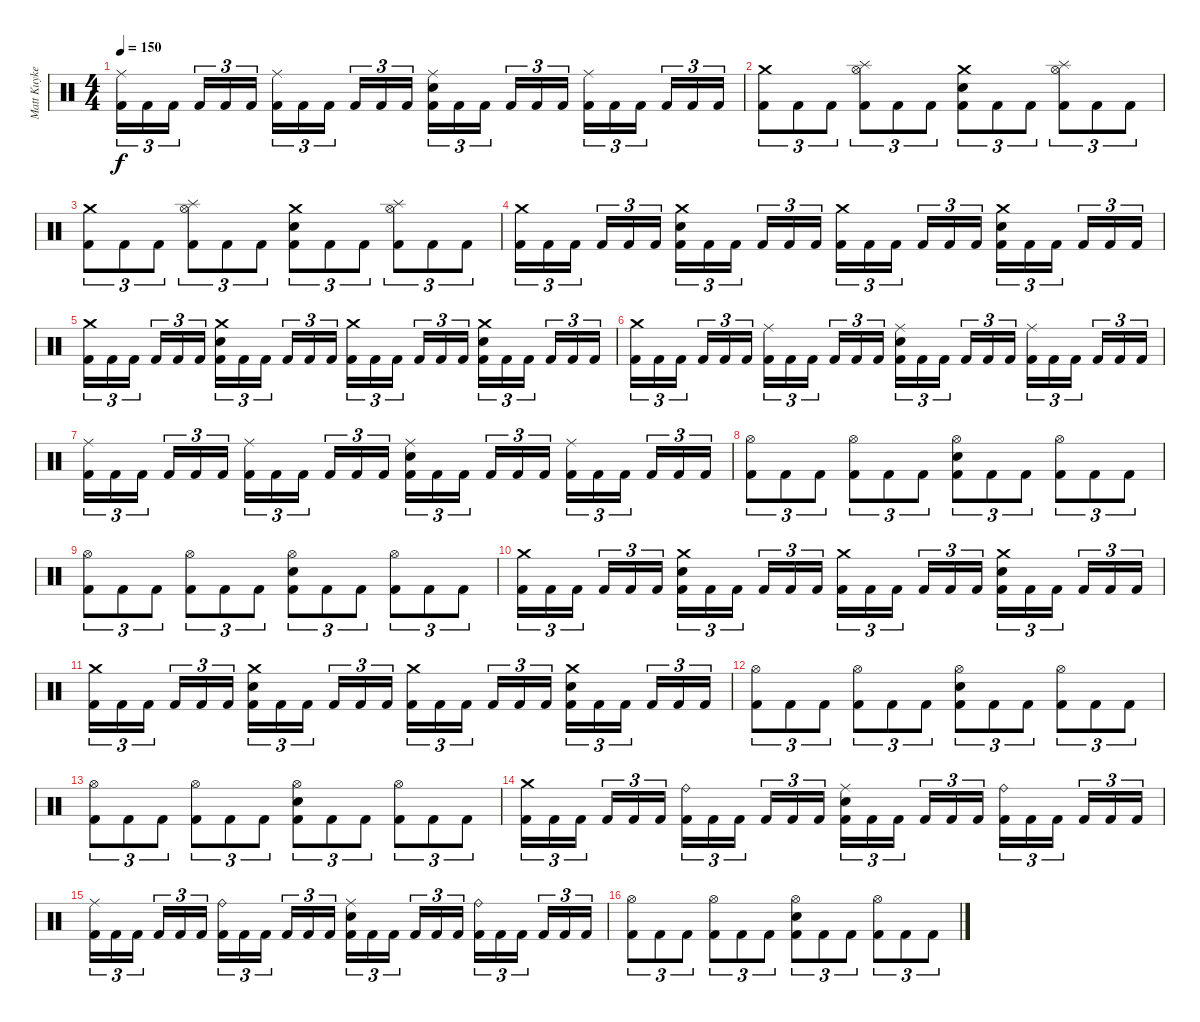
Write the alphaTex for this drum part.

\track ("Matt Kuykendall" "Matt Kuyke") {instrument percussion}
\staff {score}
\articulation defaults
\ts (4 4)
\tempo 150
\clef neutral
\ks c
("Ride (middle)" "Kick (hit) 2").16{tu (3 2) dy f} "Kick (hit) 2".16{tu (3 2)} "Kick (hit) 2".16{tu (3 2) beam splitsecondary} "Kick (hit) 2".16{tu (3 2)} "Kick (hit) 2".16{tu (3 2)} "Kick (hit) 2".16{tu (3 2)} ("Ride (middle)" "Kick (hit) 2").16{tu (3 2)} "Kick (hit) 2".16{tu (3 2)} "Kick (hit) 2".16{tu (3 2) beam splitsecondary} "Kick (hit) 2".16{tu (3 2)} "Kick (hit) 2".16{tu (3 2)} "Kick (hit) 2".16{tu (3 2)} ("Ride (middle)" "Electric Snare (hit)" "Kick (hit) 2").16{tu (3 2)} "Kick (hit) 2".16{tu (3 2)} "Kick (hit) 2".16{tu (3 2) beam splitsecondary} "Kick (hit) 2".16{tu (3 2)} "Kick (hit) 2".16{tu (3 2)} "Kick (hit) 2".16{tu (3 2)} ("Ride (middle)" "Kick (hit) 2").16{tu (3 2)} "Kick (hit) 2".16{tu (3 2)} "Kick (hit) 2".16{tu (3 2) beam splitsecondary} "Kick (hit) 2".16{tu (3 2)} "Kick (hit) 2".16{tu (3 2)} "Kick (hit) 2".16{tu (3 2)} |
("Crash medium (hit)" "Kick (hit) 2").8{tu (3 2)} "Kick (hit) 2".8{tu (3 2)} "Kick (hit) 2".8{tu (3 2)} ("Hi-Hat (open)" "Splash (hit)" "Kick (hit) 2").8{tu (3 2)} "Kick (hit) 2".8{tu (3 2)} "Kick (hit) 2".8{tu (3 2)} ("Crash medium (hit)" "Electric Snare (hit)" "Kick (hit) 2").8{tu (3 2)} "Kick (hit) 2".8{tu (3 2)} "Kick (hit) 2".8{tu (3 2)} ("Hi-Hat (open)" "Splash (hit)" "Kick (hit) 2").8{tu (3 2)} "Kick (hit) 2".8{tu (3 2)} "Kick (hit) 2".8{tu (3 2)} |
("Crash medium (hit)" "Kick (hit) 2").8{tu (3 2)} "Kick (hit) 2".8{tu (3 2)} "Kick (hit) 2".8{tu (3 2)} ("Hi-Hat (open)" "Splash (hit)" "Kick (hit) 2").8{tu (3 2)} "Kick (hit) 2".8{tu (3 2)} "Kick (hit) 2".8{tu (3 2)} ("Crash medium (hit)" "Electric Snare (hit)" "Kick (hit) 2").8{tu (3 2)} "Kick (hit) 2".8{tu (3 2)} "Kick (hit) 2".8{tu (3 2)} ("Hi-Hat (open)" "Splash (hit)" "Kick (hit) 2").8{tu (3 2)} "Kick (hit) 2".8{tu (3 2)} "Kick (hit) 2".8{tu (3 2)} |
("Crash medium (hit)" "Kick (hit) 2").16{tu (3 2)} "Kick (hit) 2".16{tu (3 2)} "Kick (hit) 2".16{tu (3 2) beam splitsecondary} "Kick (hit) 2".16{tu (3 2)} "Kick (hit) 2".16{tu (3 2)} "Kick (hit) 2".16{tu (3 2)} ("Crash medium (hit)" "Electric Snare (hit)" "Kick (hit) 2").16{tu (3 2)} "Kick (hit) 2".16{tu (3 2)} "Kick (hit) 2".16{tu (3 2) beam splitsecondary} "Kick (hit) 2".16{tu (3 2)} "Kick (hit) 2".16{tu (3 2)} "Kick (hit) 2".16{tu (3 2)} ("Crash medium (hit)" "Kick (hit) 2").16{tu (3 2)} "Kick (hit) 2".16{tu (3 2)} "Kick (hit) 2".16{tu (3 2) beam splitsecondary} "Kick (hit) 2".16{tu (3 2)} "Kick (hit) 2".16{tu (3 2)} "Kick (hit) 2".16{tu (3 2)} ("Crash medium (hit)" "Electric Snare (hit)" "Kick (hit) 2").16{tu (3 2)} "Kick (hit) 2".16{tu (3 2)} "Kick (hit) 2".16{tu (3 2) beam splitsecondary} "Kick (hit) 2".16{tu (3 2)} "Kick (hit) 2".16{tu (3 2)} "Kick (hit) 2".16{tu (3 2)} |
("Crash medium (hit)" "Kick (hit) 2").16{tu (3 2)} "Kick (hit) 2".16{tu (3 2)} "Kick (hit) 2".16{tu (3 2) beam splitsecondary} "Kick (hit) 2".16{tu (3 2)} "Kick (hit) 2".16{tu (3 2)} "Kick (hit) 2".16{tu (3 2)} ("Crash medium (hit)" "Electric Snare (hit)" "Kick (hit) 2").16{tu (3 2)} "Kick (hit) 2".16{tu (3 2)} "Kick (hit) 2".16{tu (3 2) beam splitsecondary} "Kick (hit) 2".16{tu (3 2)} "Kick (hit) 2".16{tu (3 2)} "Kick (hit) 2".16{tu (3 2)} ("Crash medium (hit)" "Kick (hit) 2").16{tu (3 2)} "Kick (hit) 2".16{tu (3 2)} "Kick (hit) 2".16{tu (3 2) beam splitsecondary} "Kick (hit) 2".16{tu (3 2)} "Kick (hit) 2".16{tu (3 2)} "Kick (hit) 2".16{tu (3 2)} ("Crash medium (hit)" "Electric Snare (hit)" "Kick (hit) 2").16{tu (3 2)} "Kick (hit) 2".16{tu (3 2)} "Kick (hit) 2".16{tu (3 2) beam splitsecondary} "Kick (hit) 2".16{tu (3 2)} "Kick (hit) 2".16{tu (3 2)} "Kick (hit) 2".16{tu (3 2)} |
("Crash medium (hit)" "Kick (hit) 2").16{tu (3 2)} "Kick (hit) 2".16{tu (3 2)} "Kick (hit) 2".16{tu (3 2) beam splitsecondary} "Kick (hit) 2".16{tu (3 2)} "Kick (hit) 2".16{tu (3 2)} "Kick (hit) 2".16{tu (3 2)} ("Ride (middle)" "Kick (hit) 2").16{tu (3 2)} "Kick (hit) 2".16{tu (3 2)} "Kick (hit) 2".16{tu (3 2) beam splitsecondary} "Kick (hit) 2".16{tu (3 2)} "Kick (hit) 2".16{tu (3 2)} "Kick (hit) 2".16{tu (3 2)} ("Ride (middle)" "Electric Snare (hit)" "Kick (hit) 2").16{tu (3 2)} "Kick (hit) 2".16{tu (3 2)} "Kick (hit) 2".16{tu (3 2) beam splitsecondary} "Kick (hit) 2".16{tu (3 2)} "Kick (hit) 2".16{tu (3 2)} "Kick (hit) 2".16{tu (3 2)} ("Ride (middle)" "Kick (hit) 2").16{tu (3 2)} "Kick (hit) 2".16{tu (3 2)} "Kick (hit) 2".16{tu (3 2) beam splitsecondary} "Kick (hit) 2".16{tu (3 2)} "Kick (hit) 2".16{tu (3 2)} "Kick (hit) 2".16{tu (3 2)} |
("Ride (middle)" "Kick (hit) 2").16{tu (3 2)} "Kick (hit) 2".16{tu (3 2)} "Kick (hit) 2".16{tu (3 2) beam splitsecondary} "Kick (hit) 2".16{tu (3 2)} "Kick (hit) 2".16{tu (3 2)} "Kick (hit) 2".16{tu (3 2)} ("Ride (middle)" "Kick (hit) 2").16{tu (3 2)} "Kick (hit) 2".16{tu (3 2)} "Kick (hit) 2".16{tu (3 2) beam splitsecondary} "Kick (hit) 2".16{tu (3 2)} "Kick (hit) 2".16{tu (3 2)} "Kick (hit) 2".16{tu (3 2)} ("Ride (middle)" "Electric Snare (hit)" "Kick (hit) 2").16{tu (3 2)} "Kick (hit) 2".16{tu (3 2)} "Kick (hit) 2".16{tu (3 2) beam splitsecondary} "Kick (hit) 2".16{tu (3 2)} "Kick (hit) 2".16{tu (3 2)} "Kick (hit) 2".16{tu (3 2)} ("Ride (middle)" "Kick (hit) 2").16{tu (3 2)} "Kick (hit) 2".16{tu (3 2)} "Kick (hit) 2".16{tu (3 2) beam splitsecondary} "Kick (hit) 2".16{tu (3 2)} "Kick (hit) 2".16{tu (3 2)} "Kick (hit) 2".16{tu (3 2)} |
("Hi-Hat (open)" "Kick (hit) 2").8{tu (3 2)} "Kick (hit) 2".8{tu (3 2)} "Kick (hit) 2".8{tu (3 2)} ("Hi-Hat (open)" "Kick (hit) 2").8{tu (3 2)} "Kick (hit) 2".8{tu (3 2)} "Kick (hit) 2".8{tu (3 2)} ("Hi-Hat (open)" "Electric Snare (hit)" "Kick (hit) 2").8{tu (3 2)} "Kick (hit) 2".8{tu (3 2)} "Kick (hit) 2".8{tu (3 2)} ("Hi-Hat (open)" "Kick (hit) 2").8{tu (3 2)} "Kick (hit) 2".8{tu (3 2)} "Kick (hit) 2".8{tu (3 2)} |
("Hi-Hat (open)" "Kick (hit) 2").8{tu (3 2)} "Kick (hit) 2".8{tu (3 2)} "Kick (hit) 2".8{tu (3 2)} ("Hi-Hat (open)" "Kick (hit) 2").8{tu (3 2)} "Kick (hit) 2".8{tu (3 2)} "Kick (hit) 2".8{tu (3 2)} ("Hi-Hat (open)" "Electric Snare (hit)" "Kick (hit) 2").8{tu (3 2)} "Kick (hit) 2".8{tu (3 2)} "Kick (hit) 2".8{tu (3 2)} ("Hi-Hat (open)" "Kick (hit) 2").8{tu (3 2)} "Kick (hit) 2".8{tu (3 2)} "Kick (hit) 2".8{tu (3 2)} |
("Crash medium (hit)" "Kick (hit) 2").16{tu (3 2)} "Kick (hit) 2".16{tu (3 2)} "Kick (hit) 2".16{tu (3 2) beam splitsecondary} "Kick (hit) 2".16{tu (3 2)} "Kick (hit) 2".16{tu (3 2)} "Kick (hit) 2".16{tu (3 2)} ("Crash medium (hit)" "Electric Snare (hit)" "Kick (hit) 2").16{tu (3 2)} "Kick (hit) 2".16{tu (3 2)} "Kick (hit) 2".16{tu (3 2) beam splitsecondary} "Kick (hit) 2".16{tu (3 2)} "Kick (hit) 2".16{tu (3 2)} "Kick (hit) 2".16{tu (3 2)} ("Crash medium (hit)" "Kick (hit) 2").16{tu (3 2)} "Kick (hit) 2".16{tu (3 2)} "Kick (hit) 2".16{tu (3 2) beam splitsecondary} "Kick (hit) 2".16{tu (3 2)} "Kick (hit) 2".16{tu (3 2)} "Kick (hit) 2".16{tu (3 2)} ("Crash medium (hit)" "Electric Snare (hit)" "Kick (hit) 2").16{tu (3 2)} "Kick (hit) 2".16{tu (3 2)} "Kick (hit) 2".16{tu (3 2) beam splitsecondary} "Kick (hit) 2".16{tu (3 2)} "Kick (hit) 2".16{tu (3 2)} "Kick (hit) 2".16{tu (3 2)} |
("Crash medium (hit)" "Kick (hit) 2").16{tu (3 2)} "Kick (hit) 2".16{tu (3 2)} "Kick (hit) 2".16{tu (3 2) beam splitsecondary} "Kick (hit) 2".16{tu (3 2)} "Kick (hit) 2".16{tu (3 2)} "Kick (hit) 2".16{tu (3 2)} ("Crash medium (hit)" "Electric Snare (hit)" "Kick (hit) 2").16{tu (3 2)} "Kick (hit) 2".16{tu (3 2)} "Kick (hit) 2".16{tu (3 2) beam splitsecondary} "Kick (hit) 2".16{tu (3 2)} "Kick (hit) 2".16{tu (3 2)} "Kick (hit) 2".16{tu (3 2)} ("Crash medium (hit)" "Kick (hit) 2").16{tu (3 2)} "Kick (hit) 2".16{tu (3 2)} "Kick (hit) 2".16{tu (3 2) beam splitsecondary} "Kick (hit) 2".16{tu (3 2)} "Kick (hit) 2".16{tu (3 2)} "Kick (hit) 2".16{tu (3 2)} ("Crash medium (hit)" "Electric Snare (hit)" "Kick (hit) 2").16{tu (3 2)} "Kick (hit) 2".16{tu (3 2)} "Kick (hit) 2".16{tu (3 2) beam splitsecondary} "Kick (hit) 2".16{tu (3 2)} "Kick (hit) 2".16{tu (3 2)} "Kick (hit) 2".16{tu (3 2)} |
("Hi-Hat (open)" "Kick (hit) 2").8{tu (3 2)} "Kick (hit) 2".8{tu (3 2)} "Kick (hit) 2".8{tu (3 2)} ("Hi-Hat (open)" "Kick (hit) 2").8{tu (3 2)} "Kick (hit) 2".8{tu (3 2)} "Kick (hit) 2".8{tu (3 2)} ("Hi-Hat (open)" "Electric Snare (hit)" "Kick (hit) 2").8{tu (3 2)} "Kick (hit) 2".8{tu (3 2)} "Kick (hit) 2".8{tu (3 2)} ("Hi-Hat (open)" "Kick (hit) 2").8{tu (3 2)} "Kick (hit) 2".8{tu (3 2)} "Kick (hit) 2".8{tu (3 2)} |
("Hi-Hat (open)" "Kick (hit) 2").8{tu (3 2)} "Kick (hit) 2".8{tu (3 2)} "Kick (hit) 2".8{tu (3 2)} ("Hi-Hat (open)" "Kick (hit) 2").8{tu (3 2)} "Kick (hit) 2".8{tu (3 2)} "Kick (hit) 2".8{tu (3 2)} ("Hi-Hat (open)" "Electric Snare (hit)" "Kick (hit) 2").8{tu (3 2)} "Kick (hit) 2".8{tu (3 2)} "Kick (hit) 2".8{tu (3 2)} ("Hi-Hat (open)" "Kick (hit) 2").8{tu (3 2)} "Kick (hit) 2".8{tu (3 2)} "Kick (hit) 2".8{tu (3 2)} |
("Crash medium (hit)" "Kick (hit) 2").16{tu (3 2)} "Kick (hit) 2".16{tu (3 2)} "Kick (hit) 2".16{tu (3 2) beam splitsecondary} "Kick (hit) 2".16{tu (3 2)} "Kick (hit) 2".16{tu (3 2)} "Kick (hit) 2".16{tu (3 2)} ("Ride (bell)" "Kick (hit) 2").16{tu (3 2)} "Kick (hit) 2".16{tu (3 2)} "Kick (hit) 2".16{tu (3 2) beam splitsecondary} "Kick (hit) 2".16{tu (3 2)} "Kick (hit) 2".16{tu (3 2)} "Kick (hit) 2".16{tu (3 2)} ("Ride (middle)" "Electric Snare (hit)" "Kick (hit) 2").16{tu (3 2)} "Kick (hit) 2".16{tu (3 2)} "Kick (hit) 2".16{tu (3 2) beam splitsecondary} "Kick (hit) 2".16{tu (3 2)} "Kick (hit) 2".16{tu (3 2)} "Kick (hit) 2".16{tu (3 2)} ("Ride (bell)" "Kick (hit) 2").16{tu (3 2)} "Kick (hit) 2".16{tu (3 2)} "Kick (hit) 2".16{tu (3 2) beam splitsecondary} "Kick (hit) 2".16{tu (3 2)} "Kick (hit) 2".16{tu (3 2)} "Kick (hit) 2".16{tu (3 2)} |
("Ride (middle)" "Kick (hit) 2").16{tu (3 2)} "Kick (hit) 2".16{tu (3 2)} "Kick (hit) 2".16{tu (3 2) beam splitsecondary} "Kick (hit) 2".16{tu (3 2)} "Kick (hit) 2".16{tu (3 2)} "Kick (hit) 2".16{tu (3 2)} ("Ride (bell)" "Kick (hit) 2").16{tu (3 2)} "Kick (hit) 2".16{tu (3 2)} "Kick (hit) 2".16{tu (3 2) beam splitsecondary} "Kick (hit) 2".16{tu (3 2)} "Kick (hit) 2".16{tu (3 2)} "Kick (hit) 2".16{tu (3 2)} ("Ride (middle)" "Electric Snare (hit)" "Kick (hit) 2").16{tu (3 2)} "Kick (hit) 2".16{tu (3 2)} "Kick (hit) 2".16{tu (3 2) beam splitsecondary} "Kick (hit) 2".16{tu (3 2)} "Kick (hit) 2".16{tu (3 2)} "Kick (hit) 2".16{tu (3 2)} ("Ride (bell)" "Kick (hit) 2").16{tu (3 2)} "Kick (hit) 2".16{tu (3 2)} "Kick (hit) 2".16{tu (3 2) beam splitsecondary} "Kick (hit) 2".16{tu (3 2)} "Kick (hit) 2".16{tu (3 2)} "Kick (hit) 2".16{tu (3 2)} |
("Hi-Hat (open)" "Kick (hit) 2").8{tu (3 2)} "Kick (hit) 2".8{tu (3 2)} "Kick (hit) 2".8{tu (3 2)} ("Hi-Hat (open)" "Kick (hit) 2").8{tu (3 2)} "Kick (hit) 2".8{tu (3 2)} "Kick (hit) 2".8{tu (3 2)} ("Hi-Hat (open)" "Electric Snare (hit)" "Kick (hit) 2").8{tu (3 2)} "Kick (hit) 2".8{tu (3 2)} "Kick (hit) 2".8{tu (3 2)} ("Hi-Hat (open)" "Kick (hit) 2").8{tu (3 2)} "Kick (hit) 2".8{tu (3 2)} "Kick (hit) 2".8{tu (3 2)}
